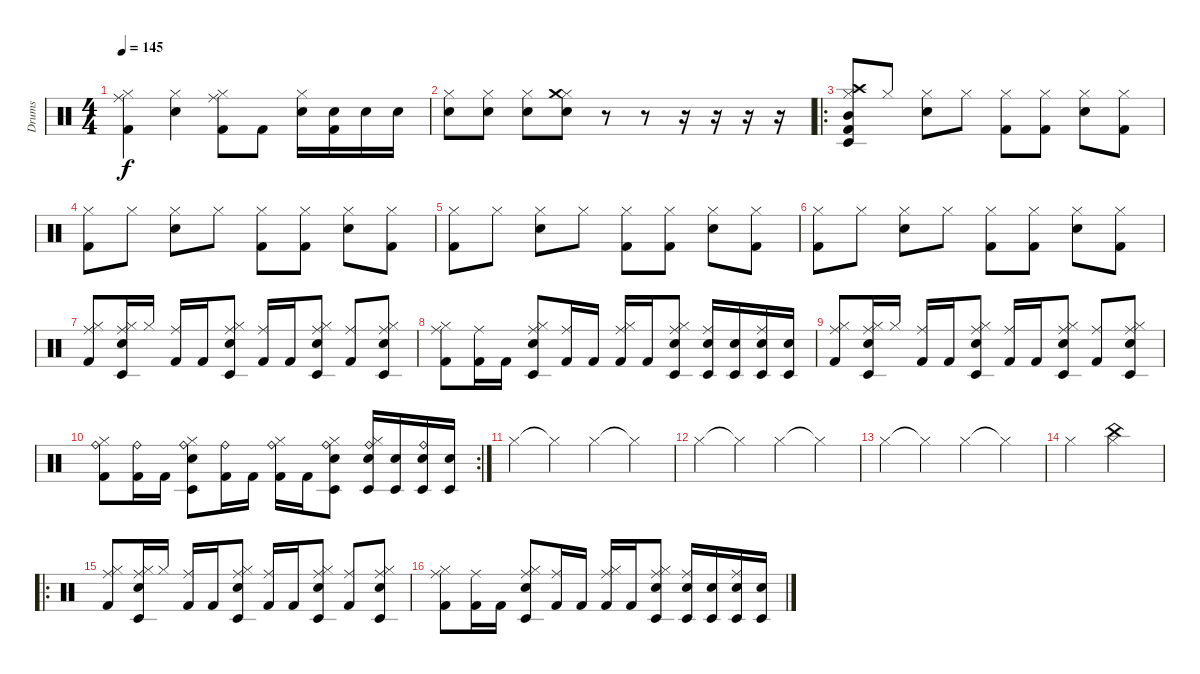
\track ("Drums" "Drums") {instrument percussion}
\staff {score}
\articulation defaults
\ts (4 4)
\tempo 145
\clef neutral
\ks c
("Kick (hit) 2" "Hi-Hat (closed)" "Ride (middle)").4{dy f} ("Electric Snare (hit)" "Hi-Hat (closed)").4 ("Kick (hit) 2" "Hi-Hat (closed)" "Ride (middle)").8 "Kick (hit) 2".8 ("Electric Snare (hit)" "Hi-Hat (closed)").16 ("Electric Snare (hit)" "Kick (hit) 2").16 "Electric Snare (hit)".16 "Electric Snare (hit)".16 |
("Electric Snare (hit)" "Hi-Hat (closed)").8 ("Electric Snare (hit)" "Hi-Hat (closed)").8 ("Electric Snare (hit)" "Hi-Hat (closed)").8 ("Electric Snare (hit)" "Hi-Hat (closed)" "Crash medium (hit)").8 r.8 r.8 r.16 r.16 r.16 r.16 |
\ro
("Kick (hit) 2" "Hi-Hat (closed)" "Crash high (hit)" "Mid Tom (hit)" "Timbale low (hit)").8 "Hi-Hat (closed)".8 ("Electric Snare (hit)" "Hi-Hat (closed)").8 "Hi-Hat (closed)".8 ("Kick (hit) 2" "Hi-Hat (closed)").8 ("Kick (hit) 2" "Hi-Hat (closed)").8 ("Electric Snare (hit)" "Hi-Hat (closed)").8 ("Hi-Hat (closed)" "Kick (hit) 2").8 |
("Kick (hit) 2" "Hi-Hat (closed)").8 "Hi-Hat (closed)".8 ("Electric Snare (hit)" "Hi-Hat (closed)").8 "Hi-Hat (closed)".8 ("Kick (hit) 2" "Hi-Hat (closed)").8 ("Kick (hit) 2" "Hi-Hat (closed)").8 ("Electric Snare (hit)" "Hi-Hat (closed)").8 ("Hi-Hat (closed)" "Kick (hit) 2").8 |
("Kick (hit) 2" "Hi-Hat (closed)").8 "Hi-Hat (closed)".8 ("Electric Snare (hit)" "Hi-Hat (closed)").8 "Hi-Hat (closed)".8 ("Kick (hit) 2" "Hi-Hat (closed)").8 ("Kick (hit) 2" "Hi-Hat (closed)").8 ("Electric Snare (hit)" "Hi-Hat (closed)").8 ("Hi-Hat (closed)" "Kick (hit) 2").8 |
("Kick (hit) 2" "Hi-Hat (closed)").8 "Hi-Hat (closed)".8 ("Electric Snare (hit)" "Hi-Hat (closed)").8 "Hi-Hat (closed)".8 ("Kick (hit) 2" "Hi-Hat (closed)").8 ("Kick (hit) 2" "Hi-Hat (closed)").8 ("Electric Snare (hit)" "Hi-Hat (closed)").8 ("Hi-Hat (closed)" "Kick (hit) 2").8 |
("Kick (hit) 2" "Hi-Hat (closed)" "Ride (middle)").8 ("Electric Snare (hit)" "Hi-Hat (closed)" "Timbale low (hit)" "Ride (middle)").16 "Hi-Hat (closed)".16 ("Kick (hit) 2" "Ride (middle)").16 "Kick (hit) 2".16 ("Electric Snare (hit)" "Hi-Hat (closed)" "Timbale low (hit)" "Ride (middle)").8 ("Kick (hit) 2" "Ride (middle)").16 "Kick (hit) 2".16 ("Electric Snare (hit)" "Hi-Hat (closed)" "Timbale low (hit)" "Ride (middle)").8 ("Kick (hit) 2" "Ride (middle)").8 ("Electric Snare (hit)" "Hi-Hat (closed)" "Timbale low (hit)" "Ride (middle)").8 |
("Kick (hit) 2" "Hi-Hat (closed)" "Ride (middle)").8 ("Kick (hit) 2" "Ride (middle)").16 "Kick (hit) 2".16 ("Electric Snare (hit)" "Hi-Hat (closed)" "Timbale low (hit)" "Ride (middle)").8 ("Kick (hit) 2" "Ride (middle)").16 "Kick (hit) 2".16 ("Kick (hit) 2" "Hi-Hat (closed)" "Ride (middle)").16 "Kick (hit) 2".16 ("Electric Snare (hit)" "Hi-Hat (closed)" "Ride (middle)" "Timbale low (hit)").8 ("Electric Snare (hit)" "Timbale low (hit)" "Ride (middle)").16 ("Electric Snare (hit)" "Timbale low (hit)").16 ("Electric Snare (hit)" "Timbale low (hit)" "Ride (middle)").16 ("Electric Snare (hit)" "Timbale low (hit)").16 |
("Kick (hit) 2" "Hi-Hat (closed)" "Ride (middle)").8 ("Electric Snare (hit)" "Hi-Hat (closed)" "Timbale low (hit)" "Ride (middle)").16 "Hi-Hat (closed)".16 ("Kick (hit) 2" "Ride (middle)").16 "Kick (hit) 2".16 ("Electric Snare (hit)" "Hi-Hat (closed)" "Timbale low (hit)" "Ride (middle)").8 ("Kick (hit) 2" "Ride (middle)").16 "Kick (hit) 2".16 ("Electric Snare (hit)" "Hi-Hat (closed)" "Timbale low (hit)" "Ride (middle)").8 ("Kick (hit) 2" "Ride (middle)").8 ("Electric Snare (hit)" "Hi-Hat (closed)" "Timbale low (hit)" "Ride (middle)").8 |
\rc 2
("Kick (hit) 2" "Hi-Hat (closed)" "Ride (bell)").8 ("Kick (hit) 2" "Ride (bell)").16 "Kick (hit) 2".16 ("Electric Snare (hit)" "Hi-Hat (closed)" "Ride (bell)" "Timbale low (hit)").8 ("Kick (hit) 2" "Ride (bell)").16 "Kick (hit) 2".16 ("Kick (hit) 2" "Hi-Hat (closed)" "Ride (bell)").16 "Kick (hit) 2".16 ("Electric Snare (hit)" "Hi-Hat (closed)" "Timbale low (hit)" "Ride (bell)").8 ("Hi-Hat (closed)" "Electric Snare (hit)" "Timbale low (hit)" "Ride (bell)").16 ("Electric Snare (hit)" "Timbale low (hit)").16 ("Electric Snare (hit)" "Timbale low (hit)" "Ride (bell)").16 ("Electric Snare (hit)" "Timbale low (hit)").16 |
"Hi-Hat (closed)".4 "Hi-Hat (closed)"{t}.4 "Hi-Hat (closed)".4 "Hi-Hat (closed)"{t}.4 |
"Hi-Hat (closed)".4 "Hi-Hat (closed)"{t}.4 "Hi-Hat (closed)".4 "Hi-Hat (closed)"{t}.4 |
"Hi-Hat (closed)".4 "Hi-Hat (closed)"{t}.4 "Hi-Hat (closed)".4 "Hi-Hat (closed)"{t}.4 |
"Hi-Hat (closed)".2 ("Hi-Hat (closed)" "China (hit)").2 |
\ro
("Kick (hit) 2" "Hi-Hat (closed)" "Ride (middle)").8 ("Electric Snare (hit)" "Hi-Hat (closed)" "Timbale low (hit)" "Ride (middle)").16 "Hi-Hat (closed)".16 ("Kick (hit) 2" "Ride (middle)").16 "Kick (hit) 2".16 ("Electric Snare (hit)" "Hi-Hat (closed)" "Timbale low (hit)" "Ride (middle)").8 ("Kick (hit) 2" "Ride (middle)").16 "Kick (hit) 2".16 ("Electric Snare (hit)" "Hi-Hat (closed)" "Timbale low (hit)" "Ride (middle)").8 ("Kick (hit) 2" "Ride (middle)").8 ("Electric Snare (hit)" "Hi-Hat (closed)" "Timbale low (hit)" "Ride (middle)").8 |
("Kick (hit) 2" "Hi-Hat (closed)" "Ride (middle)").8 ("Kick (hit) 2" "Ride (middle)").16 "Kick (hit) 2".16 ("Electric Snare (hit)" "Hi-Hat (closed)" "Timbale low (hit)" "Ride (middle)").8 ("Kick (hit) 2" "Ride (middle)").16 "Kick (hit) 2".16 ("Kick (hit) 2" "Hi-Hat (closed)" "Ride (middle)").16 "Kick (hit) 2".16 ("Electric Snare (hit)" "Hi-Hat (closed)" "Ride (middle)" "Timbale low (hit)").8 ("Electric Snare (hit)" "Timbale low (hit)" "Ride (middle)").16 ("Electric Snare (hit)" "Timbale low (hit)").16 ("Electric Snare (hit)" "Timbale low (hit)" "Ride (middle)").16 ("Electric Snare (hit)" "Timbale low (hit)").16
